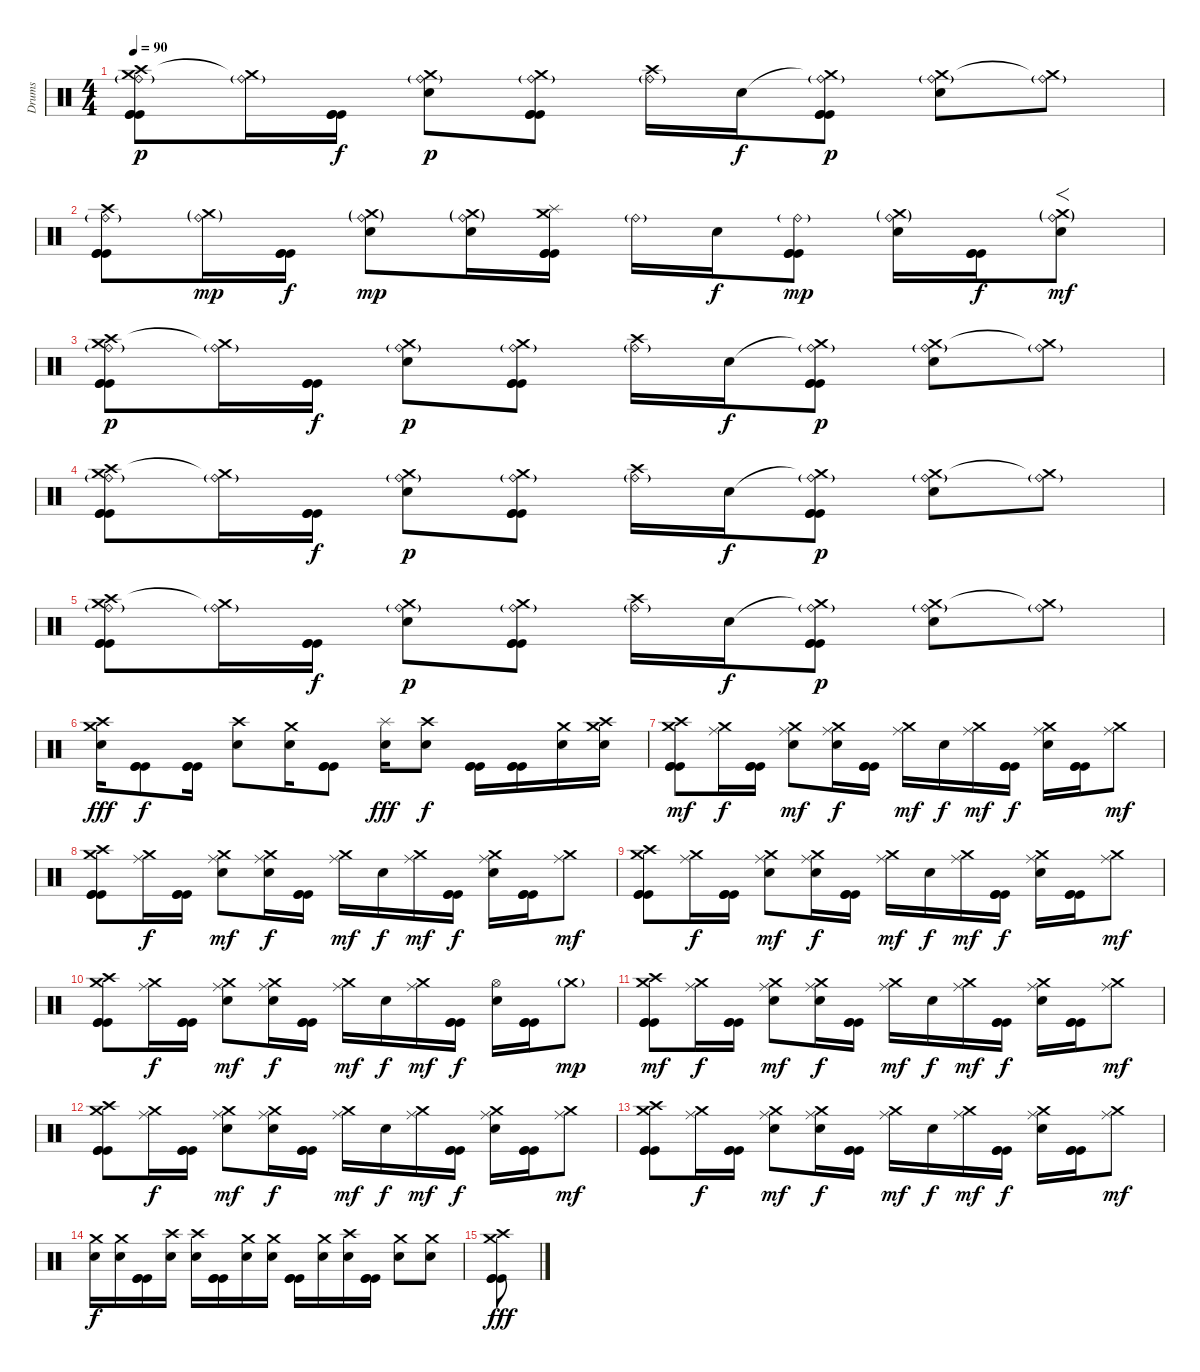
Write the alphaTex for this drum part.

\track ("Drums" "Drums") {instrument percussion}
\staff {score}
\articulation defaults
\ts (4 4)
\tempo 90
\clef neutral
\ks c
("Crash high (hit)" "Crash medium (hit)" "Ride (bell)"{g} "Kick (hit)" "Kick (hit)" "Kick (hit)").8{dy p} ("Crash medium (hit)"{t} "Ride (bell)"{g}).16 ("Kick (hit)" "Kick (hit)" "Kick (hit)").16{dy f} ("Crash medium (hit)" "Ride (bell)"{g} "Electric Snare (hit)").8{dy p} ("Crash medium (hit)" "Ride (bell)"{g} "Kick (hit)" "Kick (hit)" "Kick (hit)").8 ("Crash high (hit)" "Ride (bell)"{g}).16 "Electric Snare (hit)".16{dy f} ("Crash medium (hit)"{t} "Ride (bell)"{g} "Kick (hit)" "Kick (hit)" "Kick (hit)").8{dy p} ("Crash medium (hit)" "Ride (bell)"{g} "Electric Snare (hit)").8 ("Crash medium (hit)"{t} "Ride (bell)"{g}).8 |
("Crash high (hit)" "Ride (bell)"{g} "Kick (hit)" "Kick (hit)" "Kick (hit)").8 ("Crash medium (hit)"{g} "Ride (bell)"{g}).16{dy mp} ("Kick (hit)" "Kick (hit)" "Kick (hit)").16{dy f} ("Crash medium (hit)"{g} "Ride (bell)"{g} "Electric Snare (hit)").8{dy mp} ("Crash medium (hit)"{g} "Ride (bell)"{g} "Electric Snare (hit)").16 ("Splash (hit)" "Crash medium (hit)" "Kick (hit)" "Kick (hit)" "Kick (hit)").16 "Ride (bell)"{g}.16 "Electric Snare (hit)".16{dy f} ("Ride (bell)"{g} "Kick (hit)" "Kick (hit)" "Kick (hit)").8{dy mp} ("Crash medium (hit)"{g} "Ride (bell)"{g} "Electric Snare (hit)").16 ("Kick (hit)" "Kick (hit)" "Kick (hit)").16{dy f} ("Crash medium (hit)"{g} "Ride (bell)"{g} "Electric Snare (hit)"{tr (40 64)}).8{f dy mf} |
("Crash high (hit)" "Crash medium (hit)" "Ride (bell)"{g} "Kick (hit)" "Kick (hit)" "Kick (hit)").8{dy p} ("Crash medium (hit)"{t} "Ride (bell)"{g}).16 ("Kick (hit)" "Kick (hit)" "Kick (hit)").16{dy f} ("Crash medium (hit)" "Ride (bell)"{g} "Electric Snare (hit)").8{dy p} ("Crash medium (hit)" "Ride (bell)"{g} "Kick (hit)" "Kick (hit)" "Kick (hit)").8 ("Crash high (hit)" "Ride (bell)"{g}).16 "Electric Snare (hit)".16{dy f} ("Crash medium (hit)"{t} "Ride (bell)"{g} "Kick (hit)" "Kick (hit)" "Kick (hit)").8{dy p} ("Crash medium (hit)" "Ride (bell)"{g} "Electric Snare (hit)").8 ("Crash medium (hit)"{t} "Ride (bell)"{g}).8 |
("Crash high (hit)" "Crash medium (hit)" "Ride (bell)"{g} "Kick (hit)" "Kick (hit)" "Kick (hit)").8 ("Crash medium (hit)"{t} "Ride (bell)"{g}).16 ("Kick (hit)" "Kick (hit)" "Kick (hit)").16{dy f} ("Crash medium (hit)" "Ride (bell)"{g} "Electric Snare (hit)").8{dy p} ("Crash medium (hit)" "Ride (bell)"{g} "Kick (hit)" "Kick (hit)" "Kick (hit)").8 ("Crash high (hit)" "Ride (bell)"{g}).16 "Electric Snare (hit)".16{dy f} ("Crash medium (hit)"{t} "Ride (bell)"{g} "Kick (hit)" "Kick (hit)" "Kick (hit)").8{dy p} ("Crash medium (hit)" "Ride (bell)"{g} "Electric Snare (hit)").8 ("Crash medium (hit)"{t} "Ride (bell)"{g}).8 |
("Crash high (hit)" "Crash medium (hit)" "Ride (bell)"{g} "Kick (hit)" "Kick (hit)" "Kick (hit)").8 ("Crash medium (hit)"{t} "Ride (bell)"{g}).16 ("Kick (hit)" "Kick (hit)" "Kick (hit)").16{dy f} ("Crash medium (hit)" "Ride (bell)"{g} "Electric Snare (hit)").8{dy p} ("Crash medium (hit)" "Ride (bell)"{g} "Kick (hit)" "Kick (hit)" "Kick (hit)").8 ("Crash high (hit)" "Ride (bell)"{g}).16 "Electric Snare (hit)".16{dy f} ("Crash medium (hit)"{t} "Ride (bell)"{g} "Kick (hit)" "Kick (hit)" "Kick (hit)").8{dy p} ("Crash medium (hit)" "Ride (bell)"{g} "Electric Snare (hit)").8 ("Crash medium (hit)"{t} "Ride (bell)"{g}).8 |
("Crash medium (hit)" "Crash high (hit)" "Electric Snare (hit)").16{dy fff} ("Kick (hit)" "Kick (hit)" "Kick (hit)").8{dy f} ("Kick (hit)" "Kick (hit)" "Kick (hit)").16 ("Crash high (hit)" "Electric Snare (hit)").8 ("Crash medium (hit)" "Electric Snare (hit)").16 ("Kick (hit)" "Kick (hit)" "Kick (hit)").8 ("Splash (hit)" "Electric Snare (hit)").16{dy fff} ("Crash high (hit)" "Electric Snare (hit)").8{dy f} ("Kick (hit)" "Kick (hit)" "Kick (hit)").16 ("Kick (hit)" "Kick (hit)" "Kick (hit)").16 ("Crash medium (hit)" "Electric Snare (hit)").16 ("Crash high (hit)" "Crash medium (hit)" "Electric Snare (hit)").16 |
("Crash high (hit)" "Crash medium (hit)" "Kick (hit)" "Kick (hit)" "Kick (hit)").8{dy mf} ("Ride (middle)" "Crash medium (hit)").16{dy f} ("Kick (hit)" "Kick (hit)" "Kick (hit)").16 ("Ride (middle)" "Crash medium (hit)" "Electric Snare (hit)").8{dy mf} ("Ride (middle)" "Crash medium (hit)" "Electric Snare (hit)").16{dy f} ("Kick (hit)" "Kick (hit)" "Kick (hit)").16 ("Ride (middle)" "Crash medium (hit)").16{dy mf} "Electric Snare (hit)".16{dy f} ("Ride (middle)" "Crash medium (hit)").16{dy mf} ("Kick (hit)" "Kick (hit)" "Kick (hit)").16{dy f} ("Ride (middle)" "Crash medium (hit)" "Electric Snare (hit)").16 ("Kick (hit)" "Kick (hit)" "Kick (hit)").16 ("Ride (middle)" "Crash medium (hit)").8{dy mf} |
("Crash high (hit)" "Crash medium (hit)" "Kick (hit)" "Kick (hit)" "Kick (hit)").8 ("Ride (middle)" "Crash medium (hit)").16{dy f} ("Kick (hit)" "Kick (hit)" "Kick (hit)").16 ("Ride (middle)" "Crash medium (hit)" "Electric Snare (hit)").8{dy mf} ("Ride (middle)" "Crash medium (hit)" "Electric Snare (hit)").16{dy f} ("Kick (hit)" "Kick (hit)" "Kick (hit)").16 ("Ride (middle)" "Crash medium (hit)").16{dy mf} "Electric Snare (hit)".16{dy f} ("Ride (middle)" "Crash medium (hit)").16{dy mf} ("Kick (hit)" "Kick (hit)" "Kick (hit)").16{dy f} ("Ride (middle)" "Crash medium (hit)" "Electric Snare (hit)").16 ("Kick (hit)" "Kick (hit)" "Kick (hit)").16 ("Ride (middle)" "Crash medium (hit)").8{dy mf} |
("Crash high (hit)" "Crash medium (hit)" "Kick (hit)" "Kick (hit)" "Kick (hit)").8 ("Ride (middle)" "Crash medium (hit)").16{dy f} ("Kick (hit)" "Kick (hit)" "Kick (hit)").16 ("Ride (middle)" "Crash medium (hit)" "Electric Snare (hit)").8{dy mf} ("Ride (middle)" "Crash medium (hit)" "Electric Snare (hit)").16{dy f} ("Kick (hit)" "Kick (hit)" "Kick (hit)").16 ("Ride (middle)" "Crash medium (hit)").16{dy mf} "Electric Snare (hit)".16{dy f} ("Ride (middle)" "Crash medium (hit)").16{dy mf} ("Kick (hit)" "Kick (hit)" "Kick (hit)").16{dy f} ("Ride (middle)" "Crash medium (hit)" "Electric Snare (hit)").16 ("Kick (hit)" "Kick (hit)" "Kick (hit)").16 ("Ride (middle)" "Crash medium (hit)").8{dy mf} |
("Crash high (hit)" "Crash medium (hit)" "Kick (hit)" "Kick (hit)" "Kick (hit)").8 ("Ride (middle)" "Crash medium (hit)").16{dy f} ("Kick (hit)" "Kick (hit)" "Kick (hit)").16 ("Ride (middle)" "Crash medium (hit)" "Electric Snare (hit)").8{dy mf} ("Ride (middle)" "Crash medium (hit)" "Electric Snare (hit)").16{dy f} ("Kick (hit)" "Kick (hit)" "Kick (hit)").16 ("Ride (middle)" "Crash medium (hit)").16{dy mf} "Electric Snare (hit)".16{dy f} ("Ride (middle)" "Crash medium (hit)").16{dy mf} ("Kick (hit)" "Kick (hit)" "Kick (hit)").16{dy f} ("Hi-Hat (open)" "Electric Snare (hit)").16 ("Kick (hit)" "Kick (hit)" "Kick (hit)").16 "Crash medium (hit)"{g}.8{dy mp} |
("Crash high (hit)" "Crash medium (hit)" "Kick (hit)" "Kick (hit)" "Kick (hit)").8{dy mf} ("Ride (middle)" "Crash medium (hit)").16{dy f} ("Kick (hit)" "Kick (hit)" "Kick (hit)").16 ("Ride (middle)" "Crash medium (hit)" "Electric Snare (hit)").8{dy mf} ("Ride (middle)" "Crash medium (hit)" "Electric Snare (hit)").16{dy f} ("Kick (hit)" "Kick (hit)" "Kick (hit)").16 ("Ride (middle)" "Crash medium (hit)").16{dy mf} "Electric Snare (hit)".16{dy f} ("Ride (middle)" "Crash medium (hit)").16{dy mf} ("Kick (hit)" "Kick (hit)" "Kick (hit)").16{dy f} ("Ride (middle)" "Crash medium (hit)" "Electric Snare (hit)").16 ("Kick (hit)" "Kick (hit)" "Kick (hit)").16 ("Ride (middle)" "Crash medium (hit)").8{dy mf} |
("Crash high (hit)" "Crash medium (hit)" "Kick (hit)" "Kick (hit)" "Kick (hit)").8 ("Ride (middle)" "Crash medium (hit)").16{dy f} ("Kick (hit)" "Kick (hit)" "Kick (hit)").16 ("Ride (middle)" "Crash medium (hit)" "Electric Snare (hit)").8{dy mf} ("Ride (middle)" "Crash medium (hit)" "Electric Snare (hit)").16{dy f} ("Kick (hit)" "Kick (hit)" "Kick (hit)").16 ("Ride (middle)" "Crash medium (hit)").16{dy mf} "Electric Snare (hit)".16{dy f} ("Ride (middle)" "Crash medium (hit)").16{dy mf} ("Kick (hit)" "Kick (hit)" "Kick (hit)").16{dy f} ("Ride (middle)" "Crash medium (hit)" "Electric Snare (hit)").16 ("Kick (hit)" "Kick (hit)" "Kick (hit)").16 ("Ride (middle)" "Crash medium (hit)").8{dy mf} |
("Crash high (hit)" "Crash medium (hit)" "Kick (hit)" "Kick (hit)" "Kick (hit)").8 ("Ride (middle)" "Crash medium (hit)").16{dy f} ("Kick (hit)" "Kick (hit)" "Kick (hit)").16 ("Ride (middle)" "Crash medium (hit)" "Electric Snare (hit)").8{dy mf} ("Ride (middle)" "Crash medium (hit)" "Electric Snare (hit)").16{dy f} ("Kick (hit)" "Kick (hit)" "Kick (hit)").16 ("Ride (middle)" "Crash medium (hit)").16{dy mf} "Electric Snare (hit)".16{dy f} ("Ride (middle)" "Crash medium (hit)").16{dy mf} ("Kick (hit)" "Kick (hit)" "Kick (hit)").16{dy f} ("Ride (middle)" "Crash medium (hit)" "Electric Snare (hit)").16 ("Kick (hit)" "Kick (hit)" "Kick (hit)").16 ("Ride (middle)" "Crash medium (hit)").8{dy mf} |
("Crash medium (hit)" "Electric Snare (hit)").16{dy f} ("Crash medium (hit)" "Electric Snare (hit)").16 ("Kick (hit)" "Kick (hit)" "Kick (hit)").16 ("Crash high (hit)" "Electric Snare (hit)").16 ("Crash high (hit)" "Electric Snare (hit)").16 ("Kick (hit)" "Kick (hit)" "Kick (hit)").16 ("Crash medium (hit)" "Electric Snare (hit)").16 ("Crash medium (hit)" "Electric Snare (hit)").16 ("Kick (hit)" "Kick (hit)" "Kick (hit)").16 ("Crash medium (hit)" "Electric Snare (hit)").16 ("Crash high (hit)" "Electric Snare (hit)").16 ("Kick (hit)" "Kick (hit)" "Kick (hit)").16{bd 60} ("Crash medium (hit)" "Electric Snare (hit)").8 ("Crash medium (hit)" "Electric Snare (hit)").8 |
("Crash medium (hit)" "Crash high (hit)" "Kick (hit)" "Kick (hit)" "Kick (hit)").8{dy fff}
